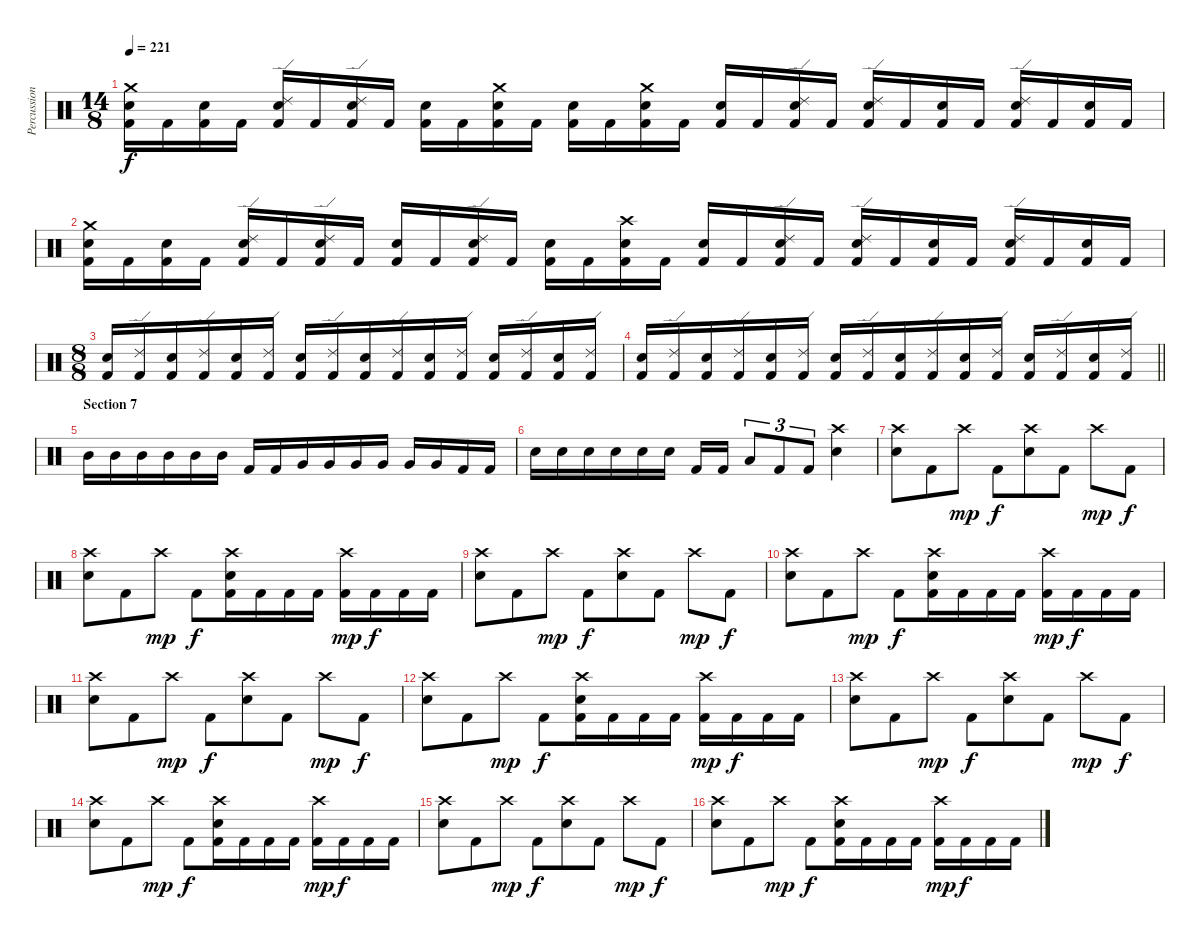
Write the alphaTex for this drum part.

\track ("Percussion" "Percussion") {instrument percussion}
\staff {score}
\articulation defaults
\ts (14 8)
\tempo 221
\clef neutral
\ks c
("Crash medium (hit)" "Snare (hit) 2" "Kick (hit) 2").16{dy f} "Kick (hit) 2".16 ("Snare (hit) 2" "Kick (hit) 2").16 "Kick (hit) 2".16 ("Ride (edge) 2" "Snare (hit) 2" "Kick (hit) 2").16 "Kick (hit) 2".16 ("Ride (edge) 2" "Snare (hit) 2" "Kick (hit) 2").16 "Kick (hit) 2".16 ("Snare (hit) 2" "Kick (hit) 2").16 "Kick (hit) 2".16 ("Crash medium (hit)" "Snare (hit) 2" "Kick (hit) 2").16 "Kick (hit) 2".16 ("Snare (hit) 2" "Kick (hit) 2").16 "Kick (hit) 2".16 ("Crash medium (hit)" "Snare (hit) 2" "Kick (hit) 2").16 "Kick (hit) 2".16 ("Snare (hit) 2" "Kick (hit) 2").16 "Kick (hit) 2".16 ("Ride (edge) 2" "Snare (hit) 2" "Kick (hit) 2").16 "Kick (hit) 2".16 ("Ride (edge) 2" "Snare (hit) 2" "Kick (hit) 2").16 "Kick (hit) 2".16 ("Snare (hit) 2" "Kick (hit) 2").16 "Kick (hit) 2".16 ("Ride (edge) 2" "Snare (hit) 2" "Kick (hit) 2").16 "Kick (hit) 2".16 ("Snare (hit) 2" "Kick (hit) 2").16 "Kick (hit) 2".16 |
("Crash medium (hit)" "Snare (hit) 2" "Kick (hit) 2").16 "Kick (hit) 2".16 ("Snare (hit) 2" "Kick (hit) 2").16 "Kick (hit) 2".16 ("Ride (edge) 2" "Snare (hit) 2" "Kick (hit) 2").16 "Kick (hit) 2".16 ("Ride (edge) 2" "Snare (hit) 2" "Kick (hit) 2").16 "Kick (hit) 2".16 ("Snare (hit) 2" "Kick (hit) 2").16 "Kick (hit) 2".16 ("Ride (edge) 2" "Snare (hit) 2" "Kick (hit) 2").16 "Kick (hit) 2".16 ("Snare (hit) 2" "Kick (hit) 2").16 "Kick (hit) 2".16 ("Crash high (hit)" "Snare (hit) 2" "Kick (hit) 2").16 "Kick (hit) 2".16 ("Snare (hit) 2" "Kick (hit) 2").16 "Kick (hit) 2".16 ("Ride (edge) 2" "Snare (hit) 2" "Kick (hit) 2").16 "Kick (hit) 2".16 ("Ride (edge) 2" "Snare (hit) 2" "Kick (hit) 2").16 "Kick (hit) 2".16 ("Snare (hit) 2" "Kick (hit) 2").16 "Kick (hit) 2".16 ("Ride (edge) 2" "Snare (hit) 2" "Kick (hit) 2").16 "Kick (hit) 2".16 ("Snare (hit) 2" "Kick (hit) 2").16 "Kick (hit) 2".16 |
\ts (8 8)
("Snare (hit) 2" "Kick (hit) 2").16 ("Ride (edge) 2" "Kick (hit) 2").16 ("Snare (hit) 2" "Kick (hit) 2").16 ("Ride (edge) 2" "Kick (hit) 2").16 ("Snare (hit) 2" "Kick (hit) 2").16 ("Ride (edge) 2" "Kick (hit) 2").16 ("Snare (hit) 2" "Kick (hit) 2").16 ("Ride (edge) 2" "Kick (hit) 2").16 ("Snare (hit) 2" "Kick (hit) 2").16 ("Ride (edge) 2" "Kick (hit) 2").16 ("Snare (hit) 2" "Kick (hit) 2").16 ("Ride (edge) 2" "Kick (hit) 2").16 ("Snare (hit) 2" "Kick (hit) 2").16 ("Ride (edge) 2" "Kick (hit) 2").16 ("Snare (hit) 2" "Kick (hit) 2").16 ("Ride (edge) 2" "Kick (hit) 2").16 |
\barLineRight lightlight
("Snare (hit) 2" "Kick (hit) 2").16 ("Ride (edge) 2" "Kick (hit) 2").16 ("Snare (hit) 2" "Kick (hit) 2").16 ("Ride (edge) 2" "Kick (hit) 2").16 ("Snare (hit) 2" "Kick (hit) 2").16 ("Ride (edge) 2" "Kick (hit) 2").16 ("Snare (hit) 2" "Kick (hit) 2").16 ("Ride (edge) 2" "Kick (hit) 2").16 ("Snare (hit) 2" "Kick (hit) 2").16 ("Ride (edge) 2" "Kick (hit) 2").16 ("Snare (hit) 2" "Kick (hit) 2").16 ("Ride (edge) 2" "Kick (hit) 2").16 ("Snare (hit) 2" "Kick (hit) 2").16 ("Ride (edge) 2" "Kick (hit) 2").16 ("Snare (hit) 2" "Kick (hit) 2").16 ("Ride (edge) 2" "Kick (hit) 2").16 |
\section ("" "Section 7")
"Mid Tom (hit)".16 "Mid Tom (hit)".16 "Mid Tom (hit)".16 "Mid Tom (hit)".16 "Mid Tom (hit)".16 "Mid Tom (hit)".16 "Kick (hit) 2".16 "Kick (hit) 2".16 "Very Low Tom (hit)".16 "Very Low Tom (hit)".16 "Very Low Tom (hit)".16 "Very Low Tom (hit)".16 "Very Low Tom (hit)".16 "Very Low Tom (hit)".16 "Kick (hit) 2".16 "Kick (hit) 2".16 |
"Snare (hit) 2".16 "Snare (hit) 2".16 "Snare (hit) 2".16 "Snare (hit) 2".16 "Snare (hit) 2".16 "Snare (hit) 2".16 "Kick (hit) 2".16 "Kick (hit) 2".16 "Low Tom (hit)".8{tu (3 2)} "Kick (hit) 2".8{tu (3 2)} "Kick (hit) 2".8{tu (3 2)} ("Crash high (hit)" "Snare (hit) 2").4 |
("Crash high (hit)" "Snare (hit) 2").8 "Kick (hit) 2".8 "Crash high (hit)".8{dy mp} "Kick (hit) 2".8{dy f} ("Crash high (hit)" "Snare (hit) 2").8 "Kick (hit) 2".8 "Crash high (hit)".8{dy mp} "Kick (hit) 2".8{dy f} |
("Crash high (hit)" "Snare (hit) 2").8 "Kick (hit) 2".8 "Crash high (hit)".8{dy mp} "Kick (hit) 2".8{dy f} ("Crash high (hit)" "Snare (hit) 2" "Kick (hit) 2").16 "Kick (hit) 2".16 "Kick (hit) 2".16 "Kick (hit) 2".16 ("Crash high (hit)" "Kick (hit) 2").16{dy mp} "Kick (hit) 2".16{dy f} "Kick (hit) 2".16 "Kick (hit) 2".16 |
("Crash high (hit)" "Snare (hit) 2").8 "Kick (hit) 2".8 "Crash high (hit)".8{dy mp} "Kick (hit) 2".8{dy f} ("Crash high (hit)" "Snare (hit) 2").8 "Kick (hit) 2".8 "Crash high (hit)".8{dy mp} "Kick (hit) 2".8{dy f} |
("Crash high (hit)" "Snare (hit) 2").8 "Kick (hit) 2".8 "Crash high (hit)".8{dy mp} "Kick (hit) 2".8{dy f} ("Crash high (hit)" "Snare (hit) 2" "Kick (hit) 2").16 "Kick (hit) 2".16 "Kick (hit) 2".16 "Kick (hit) 2".16 ("Crash high (hit)" "Kick (hit) 2").16{dy mp} "Kick (hit) 2".16{dy f} "Kick (hit) 2".16 "Kick (hit) 2".16 |
("Crash high (hit)" "Snare (hit) 2").8 "Kick (hit) 2".8 "Crash high (hit)".8{dy mp} "Kick (hit) 2".8{dy f} ("Crash high (hit)" "Snare (hit) 2").8 "Kick (hit) 2".8 "Crash high (hit)".8{dy mp} "Kick (hit) 2".8{dy f} |
("Crash high (hit)" "Snare (hit) 2").8 "Kick (hit) 2".8 "Crash high (hit)".8{dy mp} "Kick (hit) 2".8{dy f} ("Crash high (hit)" "Snare (hit) 2" "Kick (hit) 2").16 "Kick (hit) 2".16 "Kick (hit) 2".16 "Kick (hit) 2".16 ("Crash high (hit)" "Kick (hit) 2").16{dy mp} "Kick (hit) 2".16{dy f} "Kick (hit) 2".16 "Kick (hit) 2".16 |
("Crash high (hit)" "Snare (hit) 2").8 "Kick (hit) 2".8 "Crash high (hit)".8{dy mp} "Kick (hit) 2".8{dy f} ("Crash high (hit)" "Snare (hit) 2").8 "Kick (hit) 2".8 "Crash high (hit)".8{dy mp} "Kick (hit) 2".8{dy f} |
("Crash high (hit)" "Snare (hit) 2").8 "Kick (hit) 2".8 "Crash high (hit)".8{dy mp} "Kick (hit) 2".8{dy f} ("Crash high (hit)" "Snare (hit) 2" "Kick (hit) 2").16 "Kick (hit) 2".16 "Kick (hit) 2".16 "Kick (hit) 2".16 ("Crash high (hit)" "Kick (hit) 2").16{dy mp} "Kick (hit) 2".16{dy f} "Kick (hit) 2".16 "Kick (hit) 2".16 |
("Crash high (hit)" "Snare (hit) 2").8 "Kick (hit) 2".8 "Crash high (hit)".8{dy mp} "Kick (hit) 2".8{dy f} ("Crash high (hit)" "Snare (hit) 2").8 "Kick (hit) 2".8 "Crash high (hit)".8{dy mp} "Kick (hit) 2".8{dy f} |
("Crash high (hit)" "Snare (hit) 2").8 "Kick (hit) 2".8 "Crash high (hit)".8{dy mp} "Kick (hit) 2".8{dy f} ("Crash high (hit)" "Snare (hit) 2" "Kick (hit) 2").16 "Kick (hit) 2".16 "Kick (hit) 2".16 "Kick (hit) 2".16 ("Crash high (hit)" "Kick (hit) 2").16{dy mp} "Kick (hit) 2".16{dy f} "Kick (hit) 2".16 "Kick (hit) 2".16
